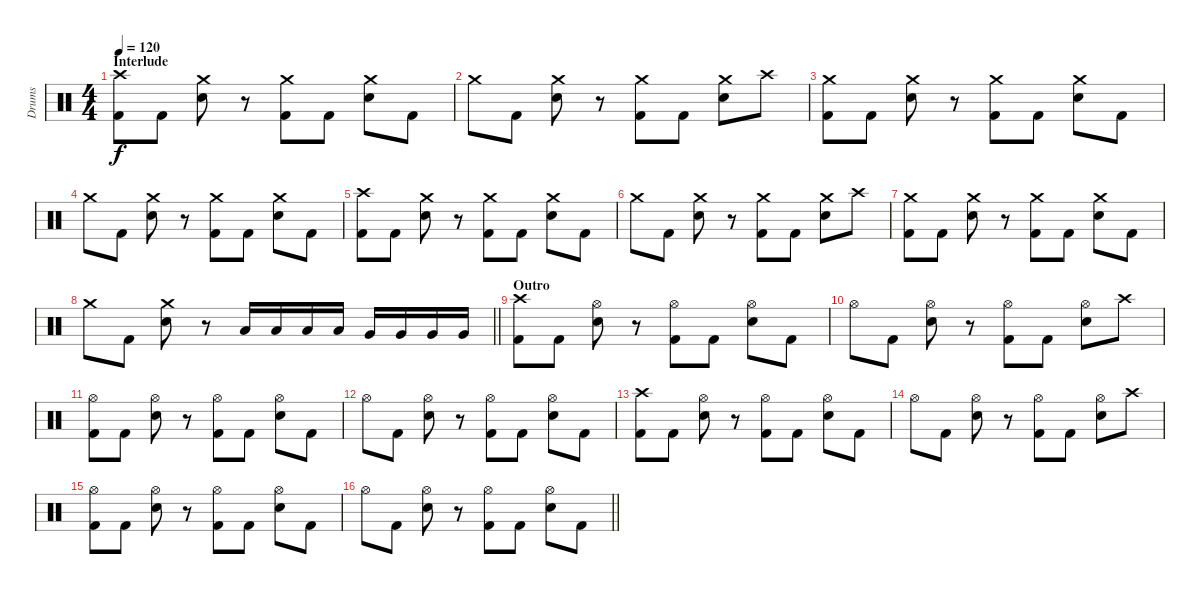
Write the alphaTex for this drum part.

\track ("Drums" "Drums") {instrument percussion}
\staff {score}
\articulation defaults
\ts (4 4)
\section ("" "Interlude")
\tempo 120
\clef neutral
\ks c
("Crash high (hit)" "Kick (hit) 2").8{dy f} "Kick (hit) 2".8 ("Crash medium (hit)" "Snare (hit) 2").8 r.8 ("Crash medium (hit)" "Kick (hit) 2").8 "Kick (hit) 2".8 ("Crash medium (hit)" "Snare (hit) 2").8 "Kick (hit) 2".8 |
"Crash medium (hit)".8 "Kick (hit) 2".8 ("Crash medium (hit)" "Snare (hit) 2").8 r.8 ("Crash medium (hit)" "Kick (hit) 2").8 "Kick (hit) 2".8 ("Crash medium (hit)" "Snare (hit) 2").8 "Crash high (hit)".8 |
("Crash medium (hit)" "Kick (hit) 2").8 "Kick (hit) 2".8 ("Crash medium (hit)" "Snare (hit) 2").8 r.8 ("Crash medium (hit)" "Kick (hit) 2").8 "Kick (hit) 2".8 ("Crash medium (hit)" "Snare (hit) 2").8 "Kick (hit) 2".8 |
"Crash medium (hit)".8 "Kick (hit) 2".8 ("Crash medium (hit)" "Snare (hit) 2").8 r.8 ("Crash medium (hit)" "Kick (hit) 2").8 "Kick (hit) 2".8 ("Crash medium (hit)" "Snare (hit) 2").8 "Kick (hit) 2".8 |
("Crash high (hit)" "Kick (hit) 2").8 "Kick (hit) 2".8 ("Crash medium (hit)" "Snare (hit) 2").8 r.8 ("Crash medium (hit)" "Kick (hit) 2").8 "Kick (hit) 2".8 ("Crash medium (hit)" "Snare (hit) 2").8 "Kick (hit) 2".8 |
"Crash medium (hit)".8 "Kick (hit) 2".8 ("Crash medium (hit)" "Snare (hit) 2").8 r.8 ("Crash medium (hit)" "Kick (hit) 2").8 "Kick (hit) 2".8 ("Crash medium (hit)" "Snare (hit) 2").8 "Crash high (hit)".8 |
("Crash medium (hit)" "Kick (hit) 2").8 "Kick (hit) 2".8 ("Crash medium (hit)" "Snare (hit) 2").8 r.8 ("Crash medium (hit)" "Kick (hit) 2").8 "Kick (hit) 2".8 ("Crash medium (hit)" "Snare (hit) 2").8 "Kick (hit) 2".8 |
\barLineRight lightlight "Crash medium (hit)".8 "Kick (hit) 2".8
("Crash medium (hit)" "Snare (hit) 2").8 r.8 "Low Tom (hit)".16 "Low Tom (hit)".16 "Low Tom (hit)".16 "Low Tom (hit)".16 "Very Low Tom (hit)".16 "Very Low Tom (hit)".16 "Very Low Tom (hit)".16 "Very Low Tom (hit)".16 |
\section ("" "Outro")
("Crash high (hit)" "Kick (hit) 2").8 "Kick (hit) 2".8 ("Hi-Hat (open)" "Snare (hit) 2").8 r.8 ("Hi-Hat (open)" "Kick (hit) 2").8 "Kick (hit) 2".8 ("Hi-Hat (open)" "Snare (hit) 2").8 "Kick (hit) 2".8 |
"Hi-Hat (open)".8 "Kick (hit) 2".8 ("Hi-Hat (open)" "Snare (hit) 2").8 r.8 ("Hi-Hat (open)" "Kick (hit) 2").8 "Kick (hit) 2".8 ("Hi-Hat (open)" "Snare (hit) 2").8 "Crash high (hit)".8 |
("Hi-Hat (open)" "Kick (hit) 2").8 "Kick (hit) 2".8 ("Hi-Hat (open)" "Snare (hit) 2").8 r.8 ("Hi-Hat (open)" "Kick (hit) 2").8 "Kick (hit) 2".8 ("Hi-Hat (open)" "Snare (hit) 2").8 "Kick (hit) 2".8 |
"Hi-Hat (open)".8 "Kick (hit) 2".8 ("Hi-Hat (open)" "Snare (hit) 2").8 r.8 ("Hi-Hat (open)" "Kick (hit) 2").8 "Kick (hit) 2".8 ("Hi-Hat (open)" "Snare (hit) 2").8 "Kick (hit) 2".8 |
("Crash high (hit)" "Kick (hit) 2").8 "Kick (hit) 2".8 ("Hi-Hat (open)" "Snare (hit) 2").8 r.8 ("Hi-Hat (open)" "Kick (hit) 2").8 "Kick (hit) 2".8 ("Hi-Hat (open)" "Snare (hit) 2").8 "Kick (hit) 2".8 |
"Hi-Hat (open)".8 "Kick (hit) 2".8 ("Hi-Hat (open)" "Snare (hit) 2").8 r.8 ("Hi-Hat (open)" "Kick (hit) 2").8 "Kick (hit) 2".8 ("Hi-Hat (open)" "Snare (hit) 2").8 "Crash high (hit)".8 |
("Hi-Hat (open)" "Kick (hit) 2").8 "Kick (hit) 2".8 ("Hi-Hat (open)" "Snare (hit) 2").8 r.8 ("Hi-Hat (open)" "Kick (hit) 2").8 "Kick (hit) 2".8 ("Hi-Hat (open)" "Snare (hit) 2").8 "Kick (hit) 2".8 |
\barLineRight lightlight "Hi-Hat (open)".8 "Kick (hit) 2".8
("Hi-Hat (open)" "Snare (hit) 2").8 r.8 ("Hi-Hat (open)" "Kick (hit) 2").8 "Kick (hit) 2".8 ("Hi-Hat (open)" "Snare (hit) 2").8 "Kick (hit) 2".8
